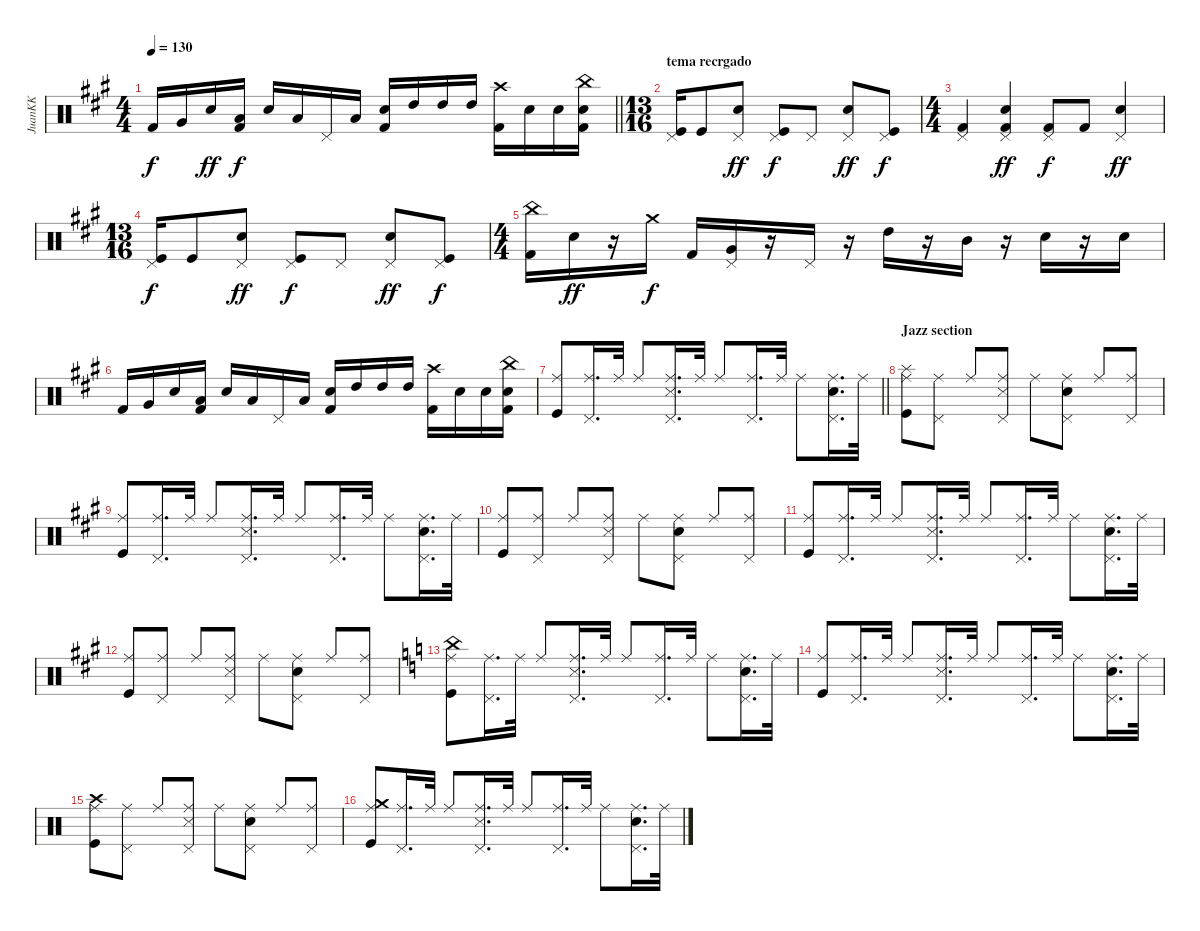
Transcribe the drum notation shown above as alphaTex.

\track ("JuanKK" "JuanKK") {instrument percussion}
\staff {score}
\articulation defaults
\ts (4 4)
\tempo 130
\clef neutral
\barLineRight lightlight
\ks a "Kick (hit) 2".16{dy f} "Very Low Tom (hit)".16 "Electric Snare (hit)".16{dy ff}
("Kick (hit) 2" "Low Tom (hit)").16{dy f} "Electric Snare (hit)".16 "Low Tom (hit)".16 "Pedal Hi-Hat (hit)".16 "Low Tom (hit)".16 ("Electric Snare (hit)" "Kick (hit) 2").16 "High Tom (hit)".16 "High Tom (hit)".16 "High Tom (hit)".16 ("Kick (hit) 2" "Crash high (hit)").16 "Electric Snare (hit)".16 "Electric Snare (hit)".16 ("Kick (hit) 2" "Electric Snare (hit)" "China (hit)").16 |
\ts (13 16)
\section ("" "tema recrgado")
("Kick (hit)" "Pedal Hi-Hat (hit)").16 "Kick (hit)".8 ("Electric Snare (hit)" "Pedal Hi-Hat (hit)").8{dy ff} ("Kick (hit)" "Pedal Hi-Hat (hit)").8{dy f} "Pedal Hi-Hat (hit)".8 ("Electric Snare (hit)" "Pedal Hi-Hat (hit)").8{dy ff} ("Kick (hit)" "Pedal Hi-Hat (hit)").8{dy f} |
\ts (4 4)
("Pedal Hi-Hat (hit)" "Kick (hit) 2").4 ("Pedal Hi-Hat (hit)" "Kick (hit) 2" "Electric Snare (hit)").4{dy ff} ("Pedal Hi-Hat (hit)" "Kick (hit) 2").8{dy f} "Kick (hit) 2".8 ("Pedal Hi-Hat (hit)" "Electric Snare (hit)").4{dy ff} |
\ts (13 16)
("Kick (hit)" "Pedal Hi-Hat (hit)").16{dy f} "Kick (hit)".8 ("Electric Snare (hit)" "Pedal Hi-Hat (hit)").8{dy ff} ("Kick (hit)" "Pedal Hi-Hat (hit)").8{dy f} "Pedal Hi-Hat (hit)".8 ("Electric Snare (hit)" "Pedal Hi-Hat (hit)").8{dy ff} ("Kick (hit)" "Pedal Hi-Hat (hit)").8{dy f} |
\ts (4 4)
("China (hit)" "Kick (hit) 2").16 "Electric Snare (hit)".16{dy ff} r.16 "Crash medium (hit)".16{dy f} "Kick (hit) 2".16 ("Very Low Tom (hit)" "Pedal Hi-Hat (hit)").16 r.16 "Pedal Hi-Hat (hit)".16 r.16 "High Tom (hit)".16 r.16 "Mid Tom (hit)".16 r.16 "Snare (hit) 2".16 r.16 "Snare (hit) 2".16 |
"Kick (hit) 2".16 "Very Low Tom (hit)".16 "Electric Snare (hit)".16 ("Kick (hit) 2" "Low Tom (hit)").16 "Electric Snare (hit)".16 "Low Tom (hit)".16 "Pedal Hi-Hat (hit)".16 "Low Tom (hit)".16 ("Electric Snare (hit)" "Kick (hit) 2").16 "High Tom (hit)".16 "High Tom (hit)".16 "High Tom (hit)".16 ("Kick (hit) 2" "Crash high (hit)").16 "Electric Snare (hit)".16 "Electric Snare (hit)".16 ("Kick (hit) 2" "Electric Snare (hit)" "China (hit)").16 |
\barLineRight lightlight
("Kick (hit)" "Ride (middle)").8 ("Pedal Hi-Hat (hit)" "Ride (middle)").16{d} "Ride (middle)".32 "Ride (middle)".8 ("Metronome (hit)" "Pedal Hi-Hat (hit)" "Ride (middle)").16{d} "Ride (middle)".32 "Ride (middle)".8 ("Pedal Hi-Hat (hit)" "Ride (middle)").16{d} "Ride (middle)".32 "Ride (middle)".8 ("Electric Snare (hit)" "Pedal Hi-Hat (hit)" "Ride (middle)").16{d} "Ride (middle)".32 |
\section ("" "Jazz section")
("Kick (hit)" "Ride (middle)" "Splash (hit)").8 ("Pedal Hi-Hat (hit)" "Ride (middle)").8 "Ride (middle)".8 ("Metronome (hit)" "Pedal Hi-Hat (hit)" "Ride (middle)").8 "Ride (middle)".8 ("Electric Snare (hit)" "Pedal Hi-Hat (hit)" "Ride (middle)").8 "Ride (middle)".8 ("Pedal Hi-Hat (hit)" "Ride (middle)").8 |
("Kick (hit)" "Ride (middle)").8 ("Pedal Hi-Hat (hit)" "Ride (middle)").16{d} "Ride (middle)".32 "Ride (middle)".8 ("Metronome (hit)" "Pedal Hi-Hat (hit)" "Ride (middle)").16{d} "Ride (middle)".32 "Ride (middle)".8 ("Pedal Hi-Hat (hit)" "Ride (middle)").16{d} "Ride (middle)".32 "Ride (middle)".8 ("Electric Snare (hit)" "Pedal Hi-Hat (hit)" "Ride (middle)").16{d} "Ride (middle)".32 |
("Kick (hit)" "Ride (middle)").8 ("Pedal Hi-Hat (hit)" "Ride (middle)").8 "Ride (middle)".8 ("Metronome (hit)" "Pedal Hi-Hat (hit)" "Ride (middle)").8 "Ride (middle)".8 ("Electric Snare (hit)" "Pedal Hi-Hat (hit)" "Ride (middle)").8 "Ride (middle)".8 ("Pedal Hi-Hat (hit)" "Ride (middle)").8 |
("Kick (hit)" "Ride (middle)").8 ("Pedal Hi-Hat (hit)" "Ride (middle)").16{d} "Ride (middle)".32 "Ride (middle)".8 ("Metronome (hit)" "Pedal Hi-Hat (hit)" "Ride (middle)").16{d} "Ride (middle)".32 "Ride (middle)".8 ("Pedal Hi-Hat (hit)" "Ride (middle)").16{d} "Ride (middle)".32 "Ride (middle)".8 ("Electric Snare (hit)" "Pedal Hi-Hat (hit)" "Ride (middle)").16{d} "Ride (middle)".32 |
("Kick (hit)" "Ride (middle)").8 ("Pedal Hi-Hat (hit)" "Ride (middle)").8 "Ride (middle)".8 ("Metronome (hit)" "Pedal Hi-Hat (hit)" "Ride (middle)").8 "Ride (middle)".8 ("Electric Snare (hit)" "Pedal Hi-Hat (hit)" "Ride (middle)").8 "Ride (middle)".8 ("Pedal Hi-Hat (hit)" "Ride (middle)").8 |
\ks c
("Kick (hit)" "Ride (middle)" "China (hit)").8 ("Pedal Hi-Hat (hit)" "Ride (middle)").16{d} "Ride (middle)".32 "Ride (middle)".8 ("Metronome (hit)" "Pedal Hi-Hat (hit)" "Ride (middle)").16{d} "Ride (middle)".32 "Ride (middle)".8 ("Pedal Hi-Hat (hit)" "Ride (middle)").16{d} "Ride (middle)".32 "Ride (middle)".8 ("Electric Snare (hit)" "Pedal Hi-Hat (hit)" "Ride (middle)").16{d} "Ride (middle)".32 |
("Kick (hit)" "Ride (middle)").8 ("Pedal Hi-Hat (hit)" "Ride (middle)").16{d} "Ride (middle)".32 "Ride (middle)".8 ("Metronome (hit)" "Pedal Hi-Hat (hit)" "Ride (middle)").16{d} "Ride (middle)".32 "Ride (middle)".8 ("Pedal Hi-Hat (hit)" "Ride (middle)").16{d} "Ride (middle)".32 "Ride (middle)".8 ("Electric Snare (hit)" "Pedal Hi-Hat (hit)" "Ride (middle)").16{d} "Ride (middle)".32 |
("Kick (hit)" "Ride (middle)" "Crash high (hit)").8 ("Pedal Hi-Hat (hit)" "Ride (middle)").8 "Ride (middle)".8 ("Metronome (hit)" "Pedal Hi-Hat (hit)" "Ride (middle)").8 "Ride (middle)".8 ("Electric Snare (hit)" "Pedal Hi-Hat (hit)" "Ride (middle)").8 "Ride (middle)".8 ("Pedal Hi-Hat (hit)" "Ride (middle)").8 |
("Kick (hit)" "Ride (middle)" "Crash medium (hit)").8 ("Pedal Hi-Hat (hit)" "Ride (middle)").16{d} "Ride (middle)".32 "Ride (middle)".8 ("Metronome (hit)" "Pedal Hi-Hat (hit)" "Ride (middle)").16{d} "Ride (middle)".32 "Ride (middle)".8 ("Pedal Hi-Hat (hit)" "Ride (middle)").16{d} "Ride (middle)".32 "Ride (middle)".8 ("Electric Snare (hit)" "Pedal Hi-Hat (hit)" "Ride (middle)").16{d} "Ride (middle)".32
